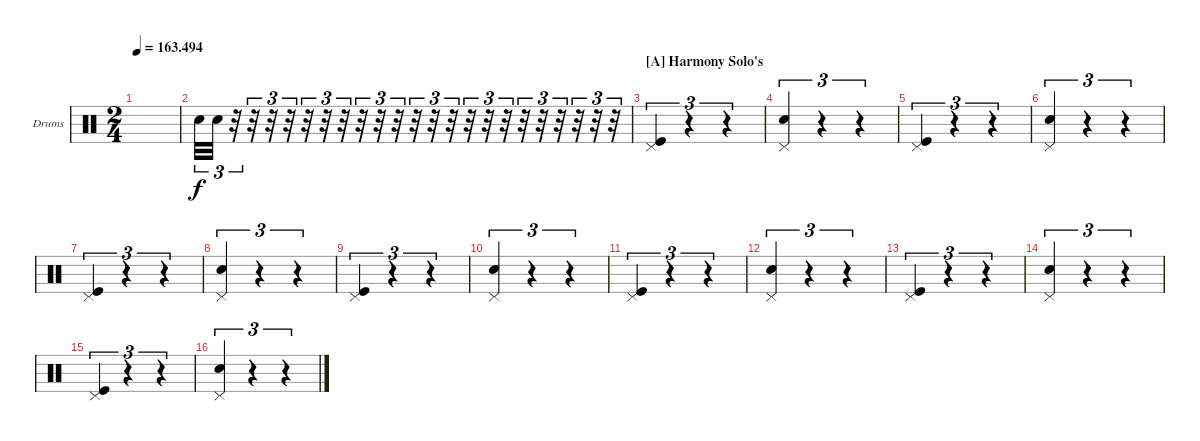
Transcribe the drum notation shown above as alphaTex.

\defaultSystemsLayout 4
\bracketExtendMode groupsimilarinstruments
\firstSystemTrackNameOrientation horizontal
\otherSystemsTrackNameOrientation horizontal
\track ("Drumkit" "Drums") {instrument percussion}
\staff {score}
\articulation defaults
\ts (2 4)
\tempo
163.494
\accidentals auto
\clef neutral
\ottava regular
\simile none
\ks c
|
"Snare (hit) 2".32{tu (3 2)} "Snare (hit) 2".32{tu (3 2)} r.32{tu (3 2)} r.32{tu (3 2)} r.32{tu (3 2)} r.32{tu (3 2)} r.32{tu (3 2)} r.32{tu (3 2)} r.32{tu (3 2)} r.32{tu (3 2)} r.32{tu (3 2)} r.32{tu (3 2)} r.32{tu (3 2)} r.32{tu (3 2)} r.32{tu (3 2)} r.32{tu (3 2)} r.32{tu (3 2)} r.32{tu (3 2)} r.32{tu (3 2)} r.32{tu (3 2)} r.32{tu (3 2)} r.32{tu (3 2)} r.32{tu (3 2)} r.32{tu (3 2)} |
\section ("A" "Harmony Solo's")
("Kick (hit)" "Pedal Hi-Hat (hit)").4{tu (3 2)} r.4{tu (3 2)} r.4{tu (3 2)} |
("Snare (hit) 2" "Pedal Hi-Hat (hit)").4{tu (3 2)} r.4{tu (3 2)} r.4{tu (3 2)} |
("Kick (hit)" "Pedal Hi-Hat (hit)").4{tu (3 2)} r.4{tu (3 2)} r.4{tu (3 2)} |
("Snare (hit) 2" "Pedal Hi-Hat (hit)").4{tu (3 2)} r.4{tu (3 2)} r.4{tu (3 2)} |
("Kick (hit)" "Pedal Hi-Hat (hit)").4{tu (3 2)} r.4{tu (3 2)} r.4{tu (3 2)} |
("Snare (hit) 2" "Pedal Hi-Hat (hit)").4{tu (3 2)} r.4{tu (3 2)} r.4{tu (3 2)} |
("Kick (hit)" "Pedal Hi-Hat (hit)").4{tu (3 2)} r.4{tu (3 2)} r.4{tu (3 2)} |
("Snare (hit) 2" "Pedal Hi-Hat (hit)").4{tu (3 2)} r.4{tu (3 2)} r.4{tu (3 2)} |
("Kick (hit)" "Pedal Hi-Hat (hit)").4{tu (3 2)} r.4{tu (3 2)} r.4{tu (3 2)} |
("Snare (hit) 2" "Pedal Hi-Hat (hit)").4{tu (3 2)} r.4{tu (3 2)} r.4{tu (3 2)} |
("Kick (hit)" "Pedal Hi-Hat (hit)").4{tu (3 2)} r.4{tu (3 2)} r.4{tu (3 2)} |
("Snare (hit) 2" "Pedal Hi-Hat (hit)").4{tu (3 2)} r.4{tu (3 2)} r.4{tu (3 2)} |
("Kick (hit)" "Pedal Hi-Hat (hit)").4{tu (3 2)} r.4{tu (3 2)} r.4{tu (3 2)} |
("Snare (hit) 2" "Pedal Hi-Hat (hit)").4{tu (3 2)} r.4{tu (3 2)} r.4{tu (3 2)}
